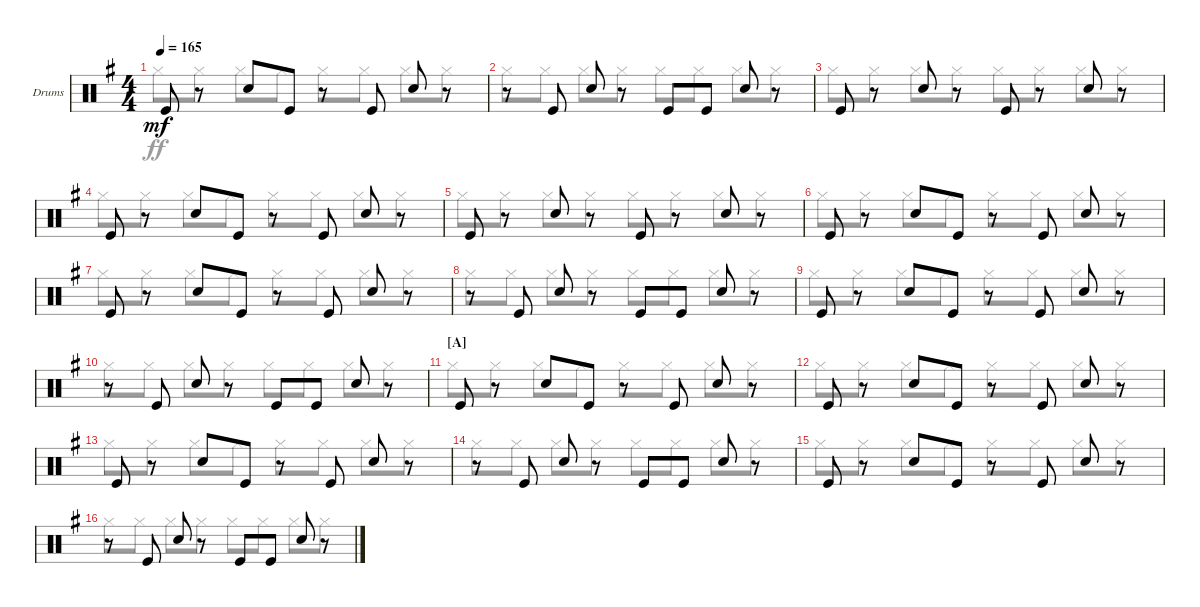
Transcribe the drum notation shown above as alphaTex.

\defaultSystemsLayout 4
\bracketExtendMode groupsimilarinstruments
\firstSystemTrackNameOrientation horizontal
\otherSystemsTrackNameOrientation horizontal
\track ("Fabrizio Moretti" "Drums") {instrument percussion}
\staff {score}
\articulation defaults
\voice
\ts (4 4)
\tempo 165
\clef neutral
\ks g "Kick (hit)".8{dy mf}
r.8 "Snare (hit) 2".8 "Kick (hit)".8 r.8 "Kick (hit)".8 "Snare (hit) 2".8 r.8 |
r.8 "Kick (hit)".8 "Snare (hit) 2".8 r.8 "Kick (hit)".8 "Kick (hit)".8 "Snare (hit) 2".8 r.8 |
"Kick (hit)".8 r.8 "Snare (hit) 2".8 r.8 "Kick (hit)".8 r.8 "Snare (hit) 2".8 r.8 |
"Kick (hit)".8 r.8 "Snare (hit) 2".8 "Kick (hit)".8 r.8 "Kick (hit)".8 "Snare (hit) 2".8 r.8 |
"Kick (hit)".8 r.8 "Snare (hit) 2".8 r.8 "Kick (hit)".8 r.8 "Snare (hit) 2".8 r.8 |
"Kick (hit)".8 r.8 "Snare (hit) 2".8 "Kick (hit)".8 r.8 "Kick (hit)".8 "Snare (hit) 2".8 r.8 |
"Kick (hit)".8 r.8 "Snare (hit) 2".8 "Kick (hit)".8 r.8 "Kick (hit)".8 "Snare (hit) 2".8 r.8 |
r.8 "Kick (hit)".8 "Snare (hit) 2".8 r.8 "Kick (hit)".8 "Kick (hit)".8 "Snare (hit) 2".8 r.8 |
"Kick (hit)".8 r.8 "Snare (hit) 2".8 "Kick (hit)".8 r.8 "Kick (hit)".8 "Snare (hit) 2".8 r.8 |
r.8 "Kick (hit)".8 "Snare (hit) 2".8 r.8 "Kick (hit)".8 "Kick (hit)".8 "Snare (hit) 2".8 r.8 |
\section ("A" "")
"Kick (hit)".8 r.8 "Snare (hit) 2".8 "Kick (hit)".8 r.8 "Kick (hit)".8 "Snare (hit) 2".8 r.8 |
"Kick (hit)".8 r.8 "Snare (hit) 2".8 "Kick (hit)".8 r.8 "Kick (hit)".8 "Snare (hit) 2".8 r.8 |
"Kick (hit)".8 r.8 "Snare (hit) 2".8 "Kick (hit)".8 r.8 "Kick (hit)".8 "Snare (hit) 2".8 r.8 |
r.8 "Kick (hit)".8 "Snare (hit) 2".8 r.8 "Kick (hit)".8 "Kick (hit)".8 "Snare (hit) 2".8 r.8 |
"Kick (hit)".8 r.8 "Snare (hit) 2".8 "Kick (hit)".8 r.8 "Kick (hit)".8 "Snare (hit) 2".8 r.8 |
r.8 "Kick (hit)".8 "Snare (hit) 2".8 r.8 "Kick (hit)".8 "Kick (hit)".8 "Snare (hit) 2".8 r.8
\voice
\clef neutral
\ottava regular
\simile none
\ks g "Hi-Hat (closed)".8{dy ff} "Hi-Hat (closed)".8 "Hi-Hat (closed)".8 "Hi-Hat (closed)".8 "Hi-Hat (closed)".8 "Hi-Hat (closed)".8 "Hi-Hat (closed)".8 "Hi-Hat (closed)".8
|
"Hi-Hat (closed)".8 "Hi-Hat (closed)".8 "Hi-Hat (closed)".8 "Hi-Hat (closed)".8 "Hi-Hat (closed)".8 "Hi-Hat (closed)".8 "Hi-Hat (closed)".8 "Hi-Hat (closed)".8 |
"Hi-Hat (closed)".8 "Hi-Hat (closed)".8 "Hi-Hat (closed)".8 "Hi-Hat (closed)".8 "Hi-Hat (closed)".8 "Hi-Hat (closed)".8 "Hi-Hat (closed)".8 "Hi-Hat (closed)".8 |
"Hi-Hat (closed)".8 "Hi-Hat (closed)".8 "Hi-Hat (closed)".8 "Hi-Hat (closed)".8 "Hi-Hat (closed)".8 "Hi-Hat (closed)".8 "Hi-Hat (closed)".8 "Hi-Hat (closed)".8 |
"Hi-Hat (closed)".8 "Hi-Hat (closed)".8 "Hi-Hat (closed)".8 "Hi-Hat (closed)".8 "Hi-Hat (closed)".8 "Hi-Hat (closed)".8 "Hi-Hat (closed)".8 "Hi-Hat (closed)".8 |
"Hi-Hat (closed)".8 "Hi-Hat (closed)".8 "Hi-Hat (closed)".8 "Hi-Hat (closed)".8 "Hi-Hat (closed)".8 "Hi-Hat (closed)".8 "Hi-Hat (closed)".8 "Hi-Hat (closed)".8 |
"Hi-Hat (closed)".8 "Hi-Hat (closed)".8 "Hi-Hat (closed)".8 "Hi-Hat (closed)".8 "Hi-Hat (closed)".8 "Hi-Hat (closed)".8 "Hi-Hat (closed)".8 "Hi-Hat (closed)".8 |
"Hi-Hat (closed)".8 "Hi-Hat (closed)".8 "Hi-Hat (closed)".8 "Hi-Hat (closed)".8 "Hi-Hat (closed)".8 "Hi-Hat (closed)".8 "Hi-Hat (closed)".8 "Hi-Hat (closed)".8 |
"Hi-Hat (closed)".8 "Hi-Hat (closed)".8 "Hi-Hat (closed)".8 "Hi-Hat (closed)".8 "Hi-Hat (closed)".8 "Hi-Hat (closed)".8 "Hi-Hat (closed)".8 "Hi-Hat (closed)".8 |
"Hi-Hat (closed)".8 "Hi-Hat (closed)".8 "Hi-Hat (closed)".8 "Hi-Hat (closed)".8 "Hi-Hat (closed)".8 "Hi-Hat (closed)".8 "Hi-Hat (closed)".8 "Hi-Hat (closed)".8 |
"Hi-Hat (closed)".8 "Hi-Hat (closed)".8 "Hi-Hat (closed)".8 "Hi-Hat (closed)".8 "Hi-Hat (closed)".8 "Hi-Hat (closed)".8 "Hi-Hat (closed)".8 "Hi-Hat (closed)".8 |
"Hi-Hat (closed)".8 "Hi-Hat (closed)".8 "Hi-Hat (closed)".8 "Hi-Hat (closed)".8 "Hi-Hat (closed)".8 "Hi-Hat (closed)".8 "Hi-Hat (closed)".8 "Hi-Hat (closed)".8 |
"Hi-Hat (closed)".8 "Hi-Hat (closed)".8 "Hi-Hat (closed)".8 "Hi-Hat (closed)".8 "Hi-Hat (closed)".8 "Hi-Hat (closed)".8 "Hi-Hat (closed)".8 "Hi-Hat (closed)".8 |
"Hi-Hat (closed)".8 "Hi-Hat (closed)".8 "Hi-Hat (closed)".8 "Hi-Hat (closed)".8 "Hi-Hat (closed)".8 "Hi-Hat (closed)".8 "Hi-Hat (closed)".8 "Hi-Hat (closed)".8 |
"Hi-Hat (closed)".8 "Hi-Hat (closed)".8 "Hi-Hat (closed)".8 "Hi-Hat (closed)".8 "Hi-Hat (closed)".8 "Hi-Hat (closed)".8 "Hi-Hat (closed)".8 "Hi-Hat (closed)".8 |
"Hi-Hat (closed)".8 "Hi-Hat (closed)".8 "Hi-Hat (closed)".8 "Hi-Hat (closed)".8 "Hi-Hat (closed)".8 "Hi-Hat (closed)".8 "Hi-Hat (closed)".8 "Hi-Hat (closed)".8
